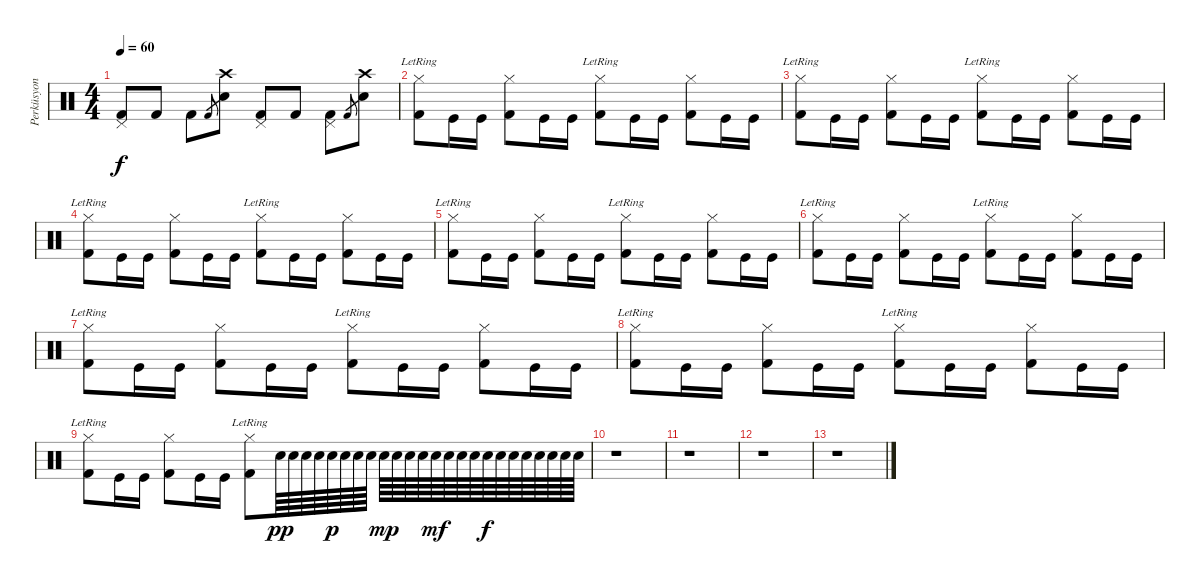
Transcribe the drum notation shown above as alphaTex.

\track ("Perküsyon" "Perküsyon") {instrument percussion}
\staff {score}
\articulation defaults
\ts (4 4)
\tempo 60
\clef neutral
\ks c
("Kick (hit) 2" "Pedal Hi-Hat (hit)").8{dy f} "Kick (hit) 2".8 "Kick (hit) 2".8 "Kick (hit) 2".8{gr} ("Snare (hit) 2" "Crash high (hit)").8 ("Kick (hit) 2" "Pedal Hi-Hat (hit)").8 "Kick (hit) 2".8 ("Kick (hit) 2" "Pedal Hi-Hat (hit)").8 "Kick (hit) 2".8{gr} ("Snare (hit) 2" "Crash high (hit)").8 |
("Kick (hit) 2" "Hi-Hat (closed)"{lr}).8 "Kick (hit)".16 "Kick (hit)".16 ("Kick (hit) 2" "Hi-Hat (closed)").8 "Kick (hit)".16 "Kick (hit)".16 ("Kick (hit) 2" "Hi-Hat (closed)"{lr}).8 "Kick (hit)".16 "Kick (hit)".16 ("Kick (hit) 2" "Hi-Hat (closed)").8 "Kick (hit)".16 "Kick (hit)".16 |
("Kick (hit) 2" "Hi-Hat (closed)"{lr}).8 "Kick (hit)".16 "Kick (hit)".16 ("Kick (hit) 2" "Hi-Hat (closed)").8 "Kick (hit)".16 "Kick (hit)".16 ("Kick (hit) 2" "Hi-Hat (closed)"{lr}).8 "Kick (hit)".16 "Kick (hit)".16 ("Kick (hit) 2" "Hi-Hat (closed)").8 "Kick (hit)".16 "Kick (hit)".16 |
("Kick (hit) 2" "Hi-Hat (closed)"{lr}).8 "Kick (hit)".16 "Kick (hit)".16 ("Kick (hit) 2" "Hi-Hat (closed)").8 "Kick (hit)".16 "Kick (hit)".16 ("Kick (hit) 2" "Hi-Hat (closed)"{lr}).8 "Kick (hit)".16 "Kick (hit)".16 ("Kick (hit) 2" "Hi-Hat (closed)").8 "Kick (hit)".16 "Kick (hit)".16 |
("Kick (hit) 2" "Hi-Hat (closed)"{lr}).8 "Kick (hit)".16 "Kick (hit)".16 ("Kick (hit) 2" "Hi-Hat (closed)").8 "Kick (hit)".16 "Kick (hit)".16 ("Kick (hit) 2" "Hi-Hat (closed)"{lr}).8 "Kick (hit)".16 "Kick (hit)".16 ("Kick (hit) 2" "Hi-Hat (closed)").8 "Kick (hit)".16 "Kick (hit)".16 |
("Kick (hit) 2" "Hi-Hat (closed)"{lr}).8 "Kick (hit)".16 "Kick (hit)".16 ("Kick (hit) 2" "Hi-Hat (closed)").8 "Kick (hit)".16 "Kick (hit)".16 ("Kick (hit) 2" "Hi-Hat (closed)"{lr}).8 "Kick (hit)".16 "Kick (hit)".16 ("Kick (hit) 2" "Hi-Hat (closed)").8 "Kick (hit)".16 "Kick (hit)".16 |
("Kick (hit) 2" "Hi-Hat (closed)"{lr}).8 "Kick (hit)".16 "Kick (hit)".16 ("Kick (hit) 2" "Hi-Hat (closed)").8 "Kick (hit)".16 "Kick (hit)".16 ("Kick (hit) 2" "Hi-Hat (closed)"{lr}).8 "Kick (hit)".16 "Kick (hit)".16 ("Kick (hit) 2" "Hi-Hat (closed)").8 "Kick (hit)".16 "Kick (hit)".16 |
("Kick (hit) 2" "Hi-Hat (closed)"{lr}).8 "Kick (hit)".16 "Kick (hit)".16 ("Kick (hit) 2" "Hi-Hat (closed)").8 "Kick (hit)".16 "Kick (hit)".16 ("Kick (hit) 2" "Hi-Hat (closed)"{lr}).8 "Kick (hit)".16 "Kick (hit)".16 ("Kick (hit) 2" "Hi-Hat (closed)").8 "Kick (hit)".16 "Kick (hit)".16 |
("Kick (hit) 2" "Hi-Hat (closed)"{lr}).8 "Kick (hit)".16 "Kick (hit)".16 ("Kick (hit) 2" "Hi-Hat (closed)").8 "Kick (hit)".16 "Kick (hit)".16 ("Kick (hit) 2" "Hi-Hat (closed)"{lr}).8 "Electric Snare (hit)".64{dy pp} "Electric Snare (hit)".64 "Electric Snare (hit)".64 "Electric Snare (hit)".64 "Electric Snare (hit)".64{dy p} "Electric Snare (hit)".64 "Electric Snare (hit)".64 "Electric Snare (hit)".64 "Electric Snare (hit)".64{dy mp} "Electric Snare (hit)".64 "Electric Snare (hit)".64 "Electric Snare (hit)".64 "Electric Snare (hit)".64{dy mf} "Electric Snare (hit)".64 "Electric Snare (hit)".64 "Electric Snare (hit)".64 "Electric Snare (hit)".64{dy f} "Electric Snare (hit)".64 "Electric Snare (hit)".64 "Electric Snare (hit)".64 "Electric Snare (hit)".64 "Electric Snare (hit)".64 "Electric Snare (hit)".64 "Electric Snare (hit)".64 |
r.1 |
r.1 |
r.1 |
r.1
